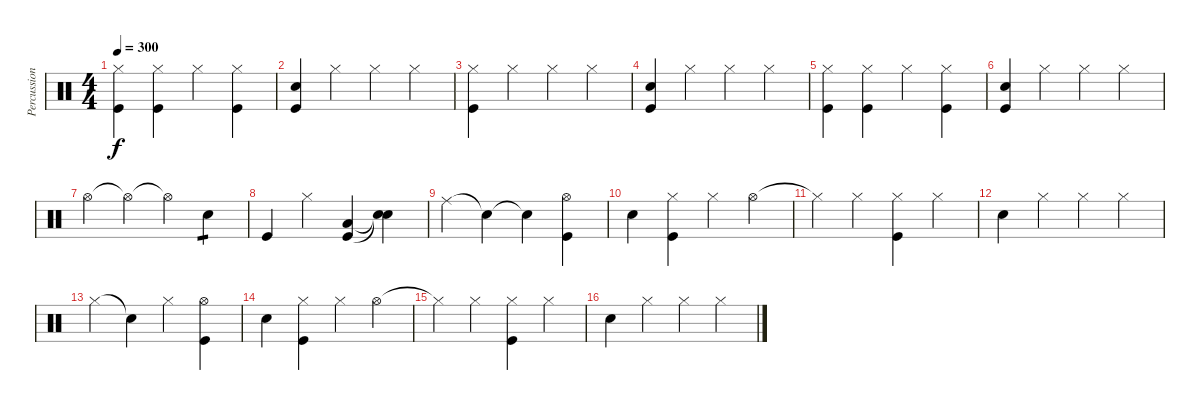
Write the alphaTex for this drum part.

\track ("Percussion" "Percussion") {instrument percussion}
\staff {score}
\articulation defaults
\ts (4 4)
\tempo 300
\clef neutral
\ks c
("Kick (hit)" "Hi-Hat (closed)").4{dy f} ("Kick (hit)" "Hi-Hat (closed)").4 "Hi-Hat (closed)".4 ("Kick (hit)" "Hi-Hat (closed)").4 |
("Kick (hit)" "Electric Snare (hit)").4 "Hi-Hat (closed)".4 "Hi-Hat (closed)".4 "Hi-Hat (closed)".4 |
("Kick (hit)" "Hi-Hat (closed)").4 "Hi-Hat (closed)".4 "Hi-Hat (closed)".4 "Hi-Hat (closed)".4 |
("Kick (hit)" "Electric Snare (hit)").4 "Hi-Hat (closed)".4 "Hi-Hat (closed)".4 "Hi-Hat (closed)".4 |
("Kick (hit)" "Hi-Hat (closed)").4 ("Kick (hit)" "Hi-Hat (closed)").4 "Hi-Hat (closed)".4 ("Kick (hit)" "Hi-Hat (closed)").4 |
("Kick (hit)" "Electric Snare (hit)").4 "Hi-Hat (closed)".4 "Hi-Hat (closed)".4 "Hi-Hat (closed)".4 |
"Hi-Hat (open)".4 "Hi-Hat (open)"{t}.4 "Hi-Hat (open)"{t}.4 "Electric Snare (hit)".4{tp 1} |
"Kick (hit)".4 "Hi-Hat (closed)".4 ("Kick (hit)" "Low Floor Tom (hit)").4 ("Snare (hit)"{t} "Snare (hit)"{t}).4 |
"Ride (middle)".4 "Snare (hit)"{t}.4 "Snare (hit)"{t}.4 ("Kick (hit)" "Hi-Hat (open)").4 |
"Electric Snare (hit)".4 ("Kick (hit)" "Hi-Hat (closed)").4 "Hi-Hat (closed)".4 "Hi-Hat (open)".4 |
"Hi-Hat (closed)"{t}.4 "Hi-Hat (closed)".4 ("Kick (hit)" "Hi-Hat (closed)").4 "Hi-Hat (closed)".4 |
"Electric Snare (hit)".4 "Hi-Hat (closed)".4 "Hi-Hat (closed)".4 "Hi-Hat (closed)".4 |
"Hi-Hat (closed)".4 "Snare (hit)"{t}.4 "Hi-Hat (closed)".4 ("Kick (hit)" "Hi-Hat (open)").4 |
"Electric Snare (hit)".4 ("Kick (hit)" "Hi-Hat (closed)").4 "Hi-Hat (closed)".4 "Hi-Hat (open)".4 |
"Hi-Hat (closed)"{t}.4 "Hi-Hat (closed)".4 ("Kick (hit)" "Hi-Hat (closed)").4 "Hi-Hat (closed)".4 |
"Electric Snare (hit)".4 "Hi-Hat (closed)".4 "Hi-Hat (closed)".4 "Hi-Hat (closed)".4
